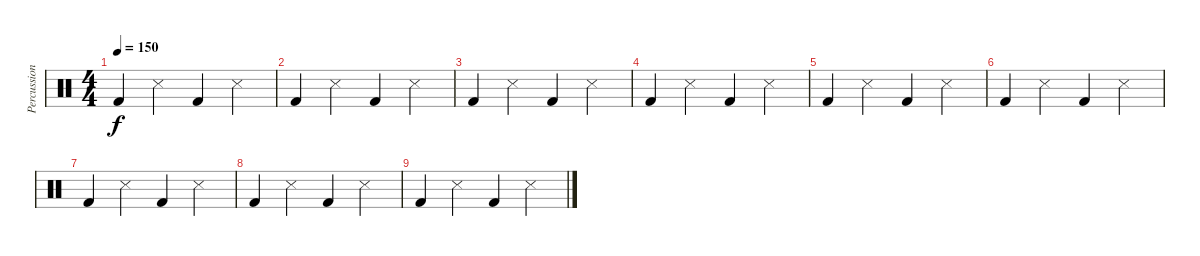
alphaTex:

\track ("Percussion" "Percussion") {instrument percussion}
\staff {score}
\articulation defaults
\ts (4 4)
\tempo 150
\clef neutral
\ks c "Kick (hit) 2".4{dy f} "Snare (side stick) 3".4 "Kick (hit) 2".4 "Snare (side stick) 3".4
|
"Kick (hit) 2".4 "Snare (side stick) 3".4 "Kick (hit) 2".4 "Snare (side stick) 3".4 |
"Kick (hit) 2".4 "Snare (side stick) 3".4 "Kick (hit) 2".4 "Snare (side stick) 3".4 |
"Kick (hit) 2".4 "Snare (side stick) 3".4 "Kick (hit) 2".4 "Snare (side stick) 3".4 |
"Kick (hit) 2".4 "Snare (side stick) 3".4 "Kick (hit) 2".4 "Snare (side stick) 3".4 |
"Kick (hit) 2".4 "Snare (side stick) 3".4 "Kick (hit) 2".4 "Snare (side stick) 3".4 |
"Kick (hit) 2".4 "Snare (side stick) 3".4 "Kick (hit) 2".4 "Snare (side stick) 3".4 |
"Kick (hit) 2".4 "Snare (side stick) 3".4 "Kick (hit) 2".4 "Snare (side stick) 3".4 |
"Kick (hit) 2".4 "Snare (side stick) 3".4 "Kick (hit) 2".4 "Snare (side stick) 3".4
